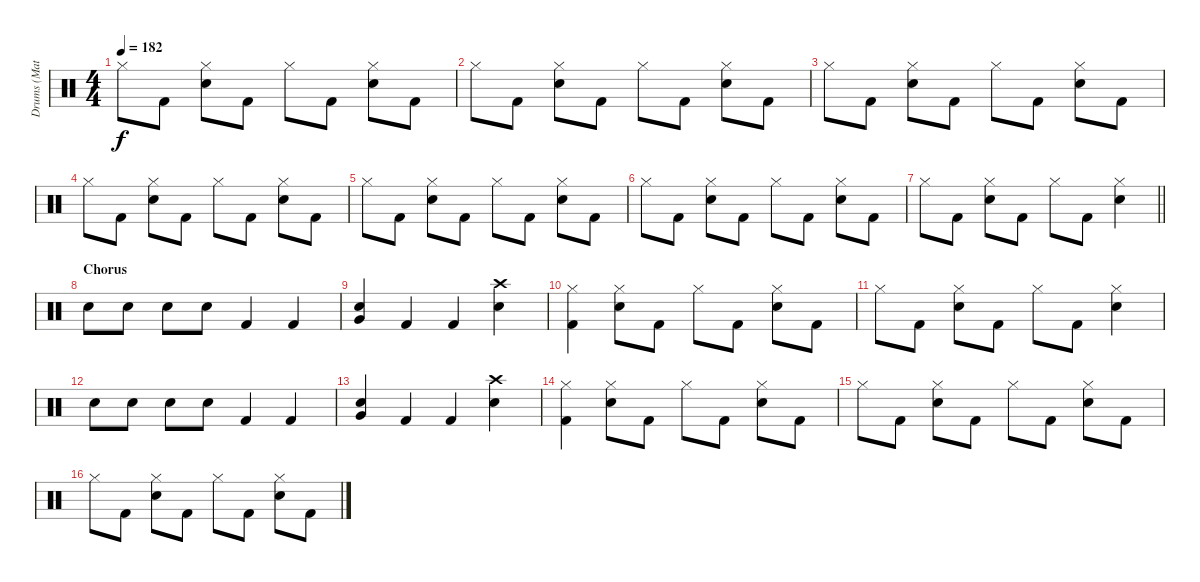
\track ("Drums (Matt)" "Drums (Mat") {instrument percussion}
\staff {score}
\articulation defaults
\ts (4 4)
\tempo 182
\clef neutral
\ks c "Hi-Hat (closed)".8{dy f} "Kick (hit) 2".8
("Hi-Hat (closed)" "Snare (hit) 2").8 "Kick (hit) 2".8 "Hi-Hat (closed)".8 "Kick (hit) 2".8 ("Hi-Hat (closed)" "Snare (hit) 2").8 "Kick (hit) 2".8 |
"Hi-Hat (closed)".8 "Kick (hit) 2".8 ("Hi-Hat (closed)" "Snare (hit) 2").8 "Kick (hit) 2".8 "Hi-Hat (closed)".8 "Kick (hit) 2".8 ("Hi-Hat (closed)" "Snare (hit) 2").8 "Kick (hit) 2".8 |
"Hi-Hat (closed)".8 "Kick (hit) 2".8 ("Hi-Hat (closed)" "Snare (hit) 2").8 "Kick (hit) 2".8 "Hi-Hat (closed)".8 "Kick (hit) 2".8 ("Hi-Hat (closed)" "Snare (hit) 2").8 "Kick (hit) 2".8 |
"Hi-Hat (closed)".8 "Kick (hit) 2".8 ("Hi-Hat (closed)" "Snare (hit) 2").8 "Kick (hit) 2".8 "Hi-Hat (closed)".8 "Kick (hit) 2".8 ("Hi-Hat (closed)" "Snare (hit) 2").8 "Kick (hit) 2".8 |
"Hi-Hat (closed)".8 "Kick (hit) 2".8 ("Hi-Hat (closed)" "Snare (hit) 2").8 "Kick (hit) 2".8 "Hi-Hat (closed)".8 "Kick (hit) 2".8 ("Hi-Hat (closed)" "Snare (hit) 2").8 "Kick (hit) 2".8 |
"Hi-Hat (closed)".8 "Kick (hit) 2".8 ("Hi-Hat (closed)" "Snare (hit) 2").8 "Kick (hit) 2".8 "Hi-Hat (closed)".8 "Kick (hit) 2".8 ("Hi-Hat (closed)" "Snare (hit) 2").8 "Kick (hit) 2".8 |
\barLineRight lightlight "Hi-Hat (closed)".8 "Kick (hit) 2".8
("Hi-Hat (closed)" "Snare (hit) 2").8 "Kick (hit) 2".8 "Hi-Hat (closed)".8 "Kick (hit) 2".8 ("Hi-Hat (closed)" "Snare (hit) 2").4 |
\section ("" "Chorus")
"Snare (hit) 2".8 "Snare (hit) 2".8 "Snare (hit) 2".8 "Snare (hit) 2".8 "Kick (hit) 2".4 "Kick (hit) 2".4 |
("Very Low Tom (hit)" "Snare (hit) 2").4 "Kick (hit) 2".4 "Kick (hit) 2".4 ("Crash high (hit)" "Snare (hit) 2").4 |
("Hi-Hat (closed)" "Kick (hit) 2").4 ("Hi-Hat (closed)" "Snare (hit) 2").8 "Kick (hit) 2".8 "Hi-Hat (closed)".8 "Kick (hit) 2".8 ("Hi-Hat (closed)" "Snare (hit) 2").8 "Kick (hit) 2".8 |
"Hi-Hat (closed)".8 "Kick (hit) 2".8 ("Hi-Hat (closed)" "Snare (hit) 2").8 "Kick (hit) 2".8 "Hi-Hat (closed)".8 "Kick (hit) 2".8 ("Hi-Hat (closed)" "Snare (hit) 2").4 |
"Snare (hit) 2".8 "Snare (hit) 2".8 "Snare (hit) 2".8 "Snare (hit) 2".8 "Kick (hit) 2".4 "Kick (hit) 2".4 |
("Very Low Tom (hit)" "Snare (hit) 2").4 "Kick (hit) 2".4 "Kick (hit) 2".4 ("Crash high (hit)" "Snare (hit) 2").4 |
("Hi-Hat (closed)" "Kick (hit) 2").4 ("Hi-Hat (closed)" "Snare (hit) 2").8 "Kick (hit) 2".8 "Hi-Hat (closed)".8 "Kick (hit) 2".8 ("Hi-Hat (closed)" "Snare (hit) 2").8 "Kick (hit) 2".8 |
"Hi-Hat (closed)".8 "Kick (hit) 2".8 ("Hi-Hat (closed)" "Snare (hit) 2").8 "Kick (hit) 2".8 "Hi-Hat (closed)".8 "Kick (hit) 2".8 ("Hi-Hat (closed)" "Snare (hit) 2").8 "Kick (hit) 2".8 |
"Hi-Hat (closed)".8 "Kick (hit) 2".8 ("Hi-Hat (closed)" "Snare (hit) 2").8 "Kick (hit) 2".8 "Hi-Hat (closed)".8 "Kick (hit) 2".8 ("Hi-Hat (closed)" "Snare (hit) 2").8 "Kick (hit) 2".8
